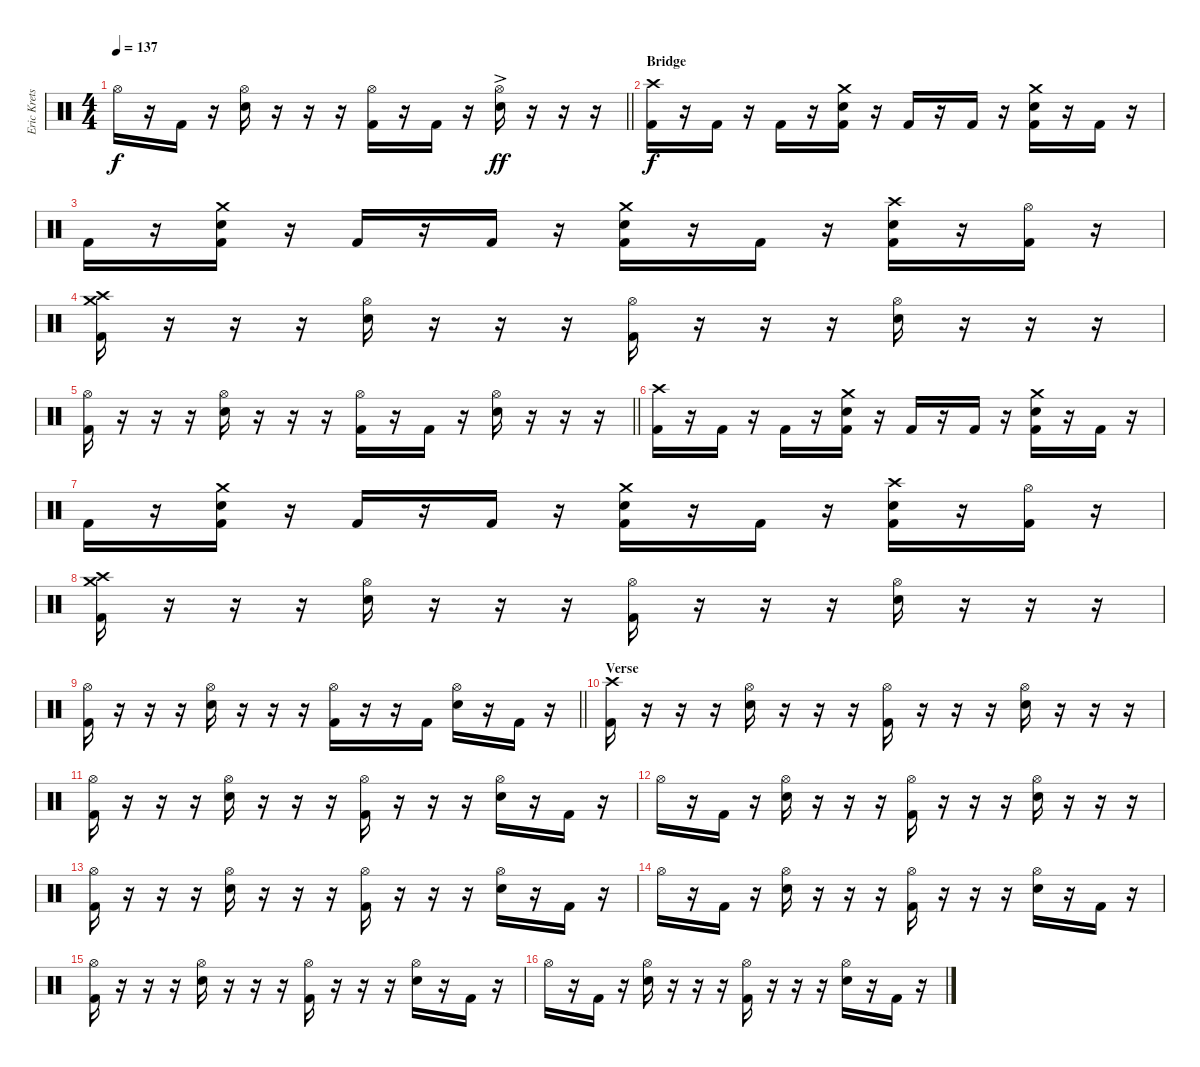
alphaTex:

\track ("Eric Krets" "Eric Krets") {instrument percussion}
\staff {score}
\articulation defaults
\ts (4 4)
\tempo 137
\clef neutral
\barLineRight lightlight
\ks c "Hi-Hat (open)".16{dy f}
r.16 "Kick (hit) 2".16 r.16 ("Hi-Hat (open)" "Electric Snare (hit)").16 r.16 r.16 r.16 ("Hi-Hat (open)" "Kick (hit) 2").16 r.16 "Kick (hit) 2".16 r.16 ("Hi-Hat (open)" "Electric Snare (hit)"{ac}).16{dy ff} r.16 r.16 r.16 |
\section ("" "Bridge")
("Crash high (hit)" "Kick (hit) 2").16{dy f} r.16 "Kick (hit) 2".16 r.16 "Kick (hit) 2".16 r.16 ("Crash medium (hit)" "Electric Snare (hit)" "Kick (hit) 2").16 r.16 "Kick (hit) 2".16 r.16 "Kick (hit) 2".16 r.16 ("Crash medium (hit)" "Electric Snare (hit)" "Kick (hit) 2").16 r.16 "Kick (hit) 2".16 r.16 |
"Kick (hit) 2".16 r.16 ("Crash medium (hit)" "Electric Snare (hit)" "Kick (hit) 2").16 r.16 "Kick (hit) 2".16 r.16 "Kick (hit) 2".16 r.16 ("Crash medium (hit)" "Electric Snare (hit)" "Kick (hit) 2").16 r.16 "Kick (hit) 2".16 r.16 ("Crash high (hit)" "Electric Snare (hit)" "Kick (hit) 2").16 r.16 ("Hi-Hat (open)" "Kick (hit) 2").16 r.16 |
("Crash high (hit)" "Crash medium (hit)" "Kick (hit) 2").16 r.16 r.16 r.16 ("Hi-Hat (open)" "Electric Snare (hit)").16 r.16 r.16 r.16 ("Hi-Hat (open)" "Kick (hit) 2").16 r.16 r.16 r.16 ("Hi-Hat (open)" "Electric Snare (hit)").16 r.16 r.16 r.16 |
\barLineRight lightlight
("Hi-Hat (open)" "Kick (hit) 2").16 r.16 r.16 r.16 ("Hi-Hat (open)" "Electric Snare (hit)").16 r.16 r.16 r.16 ("Hi-Hat (open)" "Kick (hit) 2").16 r.16 "Kick (hit) 2".16 r.16 ("Hi-Hat (open)" "Electric Snare (hit)").16 r.16 r.16 r.16 |
("Crash high (hit)" "Kick (hit) 2").16 r.16 "Kick (hit) 2".16 r.16 "Kick (hit) 2".16 r.16 ("Crash medium (hit)" "Electric Snare (hit)" "Kick (hit) 2").16 r.16 "Kick (hit) 2".16 r.16 "Kick (hit) 2".16 r.16 ("Crash medium (hit)" "Electric Snare (hit)" "Kick (hit) 2").16 r.16 "Kick (hit) 2".16 r.16 |
"Kick (hit) 2".16 r.16 ("Crash medium (hit)" "Electric Snare (hit)" "Kick (hit) 2").16 r.16 "Kick (hit) 2".16 r.16 "Kick (hit) 2".16 r.16 ("Crash medium (hit)" "Electric Snare (hit)" "Kick (hit) 2").16 r.16 "Kick (hit) 2".16 r.16 ("Crash high (hit)" "Electric Snare (hit)" "Kick (hit) 2").16 r.16 ("Hi-Hat (open)" "Kick (hit) 2").16 r.16 |
("Crash high (hit)" "Crash medium (hit)" "Kick (hit) 2").16 r.16 r.16 r.16 ("Hi-Hat (open)" "Electric Snare (hit)").16 r.16 r.16 r.16 ("Hi-Hat (open)" "Kick (hit) 2").16 r.16 r.16 r.16 ("Hi-Hat (open)" "Electric Snare (hit)").16 r.16 r.16 r.16 |
\barLineRight lightlight
("Hi-Hat (open)" "Kick (hit) 2").16 r.16 r.16 r.16 ("Hi-Hat (open)" "Electric Snare (hit)").16 r.16 r.16 r.16 ("Hi-Hat (open)" "Kick (hit) 2").16 r.16 r.16 "Kick (hit) 2".16 ("Hi-Hat (open)" "Electric Snare (hit)").16 r.16 "Kick (hit) 2".16 r.16 |
\section ("" "Verse")
("Crash high (hit)" "Kick (hit) 2").16 r.16 r.16 r.16 ("Hi-Hat (open)" "Electric Snare (hit)").16 r.16 r.16 r.16 ("Hi-Hat (open)" "Kick (hit) 2").16 r.16 r.16 r.16 ("Hi-Hat (open)" "Electric Snare (hit)").16 r.16 r.16 r.16 |
("Hi-Hat (open)" "Kick (hit) 2").16 r.16 r.16 r.16 ("Hi-Hat (open)" "Electric Snare (hit)").16 r.16 r.16 r.16 ("Hi-Hat (open)" "Kick (hit) 2").16 r.16 r.16 r.16 ("Hi-Hat (open)" "Electric Snare (hit)").16 r.16 "Kick (hit) 2".16 r.16 |
"Hi-Hat (open)".16 r.16 "Kick (hit) 2".16 r.16 ("Hi-Hat (open)" "Electric Snare (hit)").16 r.16 r.16 r.16 ("Hi-Hat (open)" "Kick (hit) 2").16 r.16 r.16 r.16 ("Hi-Hat (open)" "Electric Snare (hit)").16 r.16 r.16 r.16 |
("Hi-Hat (open)" "Kick (hit) 2").16 r.16 r.16 r.16 ("Hi-Hat (open)" "Electric Snare (hit)").16 r.16 r.16 r.16 ("Hi-Hat (open)" "Kick (hit) 2").16 r.16 r.16 r.16 ("Hi-Hat (open)" "Electric Snare (hit)").16 r.16 "Kick (hit) 2".16 r.16 |
"Hi-Hat (open)".16 r.16 "Kick (hit) 2".16 r.16 ("Hi-Hat (open)" "Electric Snare (hit)").16 r.16 r.16 r.16 ("Hi-Hat (open)" "Kick (hit) 2").16 r.16 r.16 r.16 ("Hi-Hat (open)" "Electric Snare (hit)").16 r.16 "Kick (hit) 2".16 r.16 |
("Hi-Hat (open)" "Kick (hit) 2").16 r.16 r.16 r.16 ("Hi-Hat (open)" "Electric Snare (hit)").16 r.16 r.16 r.16 ("Hi-Hat (open)" "Kick (hit) 2").16 r.16 r.16 r.16 ("Hi-Hat (open)" "Electric Snare (hit)").16 r.16 "Kick (hit) 2".16 r.16 |
"Hi-Hat (open)".16 r.16 "Kick (hit) 2".16 r.16 ("Hi-Hat (open)" "Electric Snare (hit)").16 r.16 r.16 r.16 ("Hi-Hat (open)" "Kick (hit) 2").16 r.16 r.16 r.16 ("Hi-Hat (open)" "Electric Snare (hit)").16 r.16 "Kick (hit) 2".16 r.16
